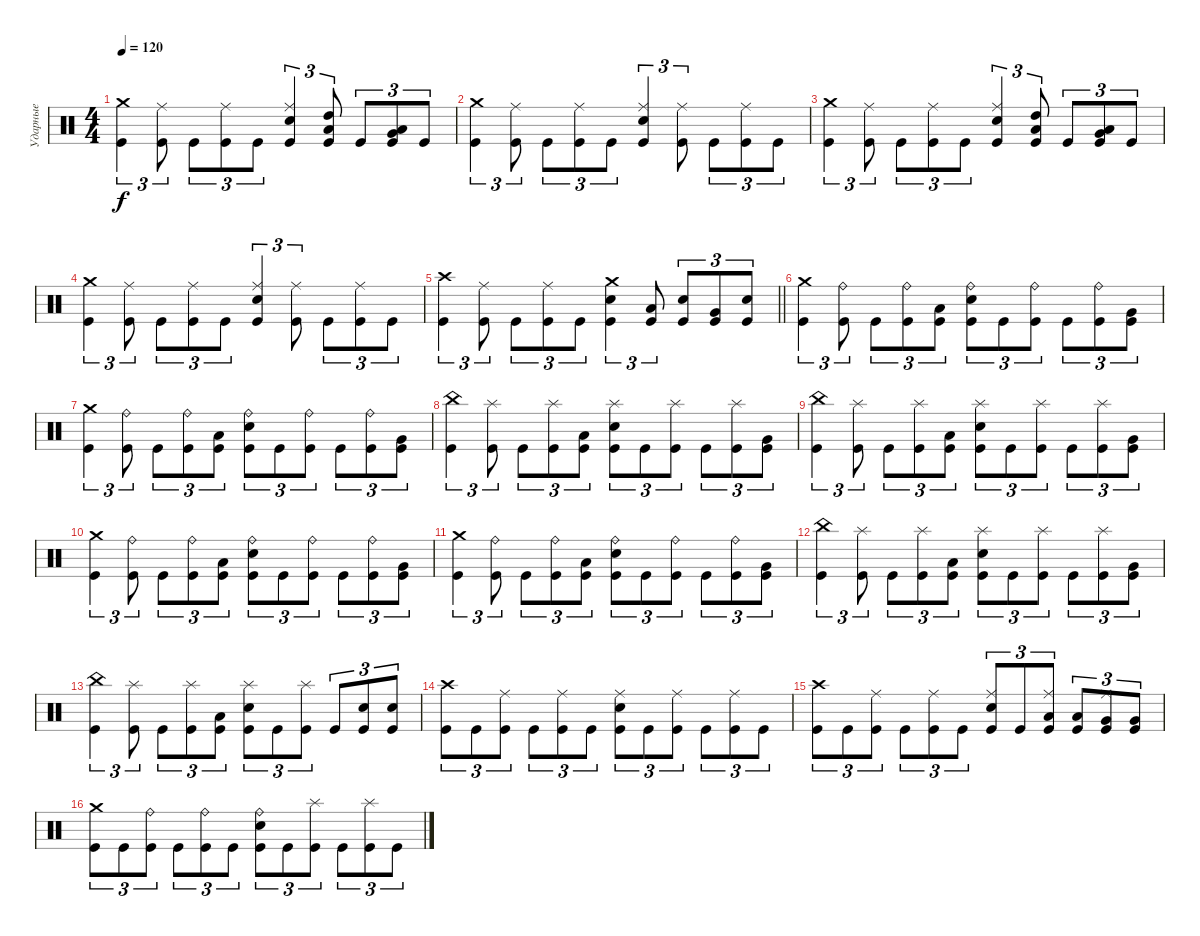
\track ("Ударные" "Ударные") {instrument percussion}
\staff {score}
\articulation defaults
\ts (4 4)
\tempo 120
\clef neutral
\ks c
("Crash medium (hit)" "Kick (hit)").4{tu (3 2) dy f} ("Ride (middle)" "Kick (hit)").8{tu (3 2)} "Kick (hit)".8{tu (3 2)} ("Ride (middle)" "Kick (hit)").8{tu (3 2)} "Kick (hit)".8{tu (3 2)} ("Ride (middle)" "Electric Snare (hit)" "Kick (hit)").4{tu (3 2)} ("Low Tom (hit)" "High Tom (hit)" "Kick (hit)").8{tu (3 2)} "Kick (hit)".8{tu (3 2)} ("Very Low Tom (hit)" "Low Tom (hit)" "Kick (hit)").8{tu (3 2)} "Kick (hit)".8{tu (3 2)} |
("Crash medium (hit)" "Kick (hit)").4{tu (3 2)} ("Ride (middle)" "Kick (hit)").8{tu (3 2)} "Kick (hit)".8{tu (3 2)} ("Ride (middle)" "Kick (hit)").8{tu (3 2)} "Kick (hit)".8{tu (3 2)} ("Ride (middle)" "Electric Snare (hit)" "Kick (hit)").4{tu (3 2)} ("Ride (middle)" "Kick (hit)").8{tu (3 2)} "Kick (hit)".8{tu (3 2)} ("Ride (middle)" "Kick (hit)").8{tu (3 2)} "Kick (hit)".8{tu (3 2)} |
("Crash medium (hit)" "Kick (hit)").4{tu (3 2)} ("Ride (middle)" "Kick (hit)").8{tu (3 2)} "Kick (hit)".8{tu (3 2)} ("Ride (middle)" "Kick (hit)").8{tu (3 2)} "Kick (hit)".8{tu (3 2)} ("Ride (middle)" "Electric Snare (hit)" "Kick (hit)").4{tu (3 2)} ("Low Tom (hit)" "High Tom (hit)" "Kick (hit)").8{tu (3 2)} "Kick (hit)".8{tu (3 2)} ("Very Low Tom (hit)" "Low Tom (hit)" "Kick (hit)").8{tu (3 2)} "Kick (hit)".8{tu (3 2)} |
("Crash medium (hit)" "Kick (hit)").4{tu (3 2)} ("Ride (middle)" "Kick (hit)").8{tu (3 2)} "Kick (hit)".8{tu (3 2)} ("Ride (middle)" "Kick (hit)").8{tu (3 2)} "Kick (hit)".8{tu (3 2)} ("Ride (middle)" "Electric Snare (hit)" "Kick (hit)").4{tu (3 2)} ("Ride (middle)" "Kick (hit)").8{tu (3 2)} "Kick (hit)".8{tu (3 2)} ("Ride (middle)" "Kick (hit)").8{tu (3 2)} "Kick (hit)".8{tu (3 2)} |
\barLineRight lightlight
("Crash high (hit)" "Kick (hit)").4{tu (3 2)} ("Ride (middle)" "Kick (hit)").8{tu (3 2)} "Kick (hit)".8{tu (3 2)} ("Ride (middle)" "Kick (hit)").8{tu (3 2)} "Kick (hit)".8{tu (3 2)} ("Crash medium (hit)" "Electric Snare (hit)" "Kick (hit)").4{tu (3 2)} ("Low Tom (hit)" "Kick (hit)").8{tu (3 2)} ("Electric Snare (hit)" "Kick (hit)").8{tu (3 2)} ("Very Low Tom (hit)" "Kick (hit)").8{tu (3 2)} ("Electric Snare (hit)" "Kick (hit)").8{tu (3 2)} |
\section ("" " ")
("Crash medium (hit)" "Kick (hit)").4{tu (3 2)} ("Ride (bell)" "Kick (hit)").8{tu (3 2)} "Kick (hit)".8{tu (3 2)} ("Ride (bell)" "Kick (hit)").8{tu (3 2)} ("Low Floor Tom (hit)" "Kick (hit)").8{tu (3 2)} ("Ride (bell)" "Electric Snare (hit)" "Kick (hit)").8{tu (3 2)} "Kick (hit)".8{tu (3 2)} ("Ride (bell)" "Kick (hit)").8{tu (3 2)} "Kick (hit)".8{tu (3 2)} ("Ride (bell)" "Kick (hit)").8{tu (3 2)} ("Very Low Tom (hit)" "Kick (hit)").8{tu (3 2)} |
("Crash medium (hit)" "Kick (hit)").4{tu (3 2)} ("Ride (bell)" "Kick (hit)").8{tu (3 2)} "Kick (hit)".8{tu (3 2)} ("Ride (bell)" "Kick (hit)").8{tu (3 2)} ("Low Floor Tom (hit)" "Kick (hit)").8{tu (3 2)} ("Ride (bell)" "Electric Snare (hit)" "Kick (hit)").8{tu (3 2)} "Kick (hit)".8{tu (3 2)} ("Ride (bell)" "Kick (hit)").8{tu (3 2)} "Kick (hit)".8{tu (3 2)} ("Ride (bell)" "Kick (hit)").8{tu (3 2)} ("Very Low Tom (hit)" "Kick (hit)").8{tu (3 2)} |
("China (hit)" "Kick (hit)").4{tu (3 2)} ("Splash (hit)" "Kick (hit)").8{tu (3 2)} "Kick (hit)".8{tu (3 2)} ("Splash (hit)" "Kick (hit)").8{tu (3 2)} ("Low Floor Tom (hit)" "Kick (hit)").8{tu (3 2)} ("Splash (hit)" "Electric Snare (hit)" "Kick (hit)").8{tu (3 2)} "Kick (hit)".8{tu (3 2)} ("Splash (hit)" "Kick (hit)").8{tu (3 2)} "Kick (hit)".8{tu (3 2)} ("Splash (hit)" "Kick (hit)").8{tu (3 2)} ("Very Low Tom (hit)" "Kick (hit)").8{tu (3 2)} |
("China (hit)" "Kick (hit)").4{tu (3 2)} ("Splash (hit)" "Kick (hit)").8{tu (3 2)} "Kick (hit)".8{tu (3 2)} ("Splash (hit)" "Kick (hit)").8{tu (3 2)} ("Low Floor Tom (hit)" "Kick (hit)").8{tu (3 2)} ("Splash (hit)" "Electric Snare (hit)" "Kick (hit)").8{tu (3 2)} "Kick (hit)".8{tu (3 2)} ("Splash (hit)" "Kick (hit)").8{tu (3 2)} "Kick (hit)".8{tu (3 2)} ("Splash (hit)" "Kick (hit)").8{tu (3 2)} ("Very Low Tom (hit)" "Kick (hit)").8{tu (3 2)} |
("Crash medium (hit)" "Kick (hit)").4{tu (3 2)} ("Ride (bell)" "Kick (hit)").8{tu (3 2)} "Kick (hit)".8{tu (3 2)} ("Ride (bell)" "Kick (hit)").8{tu (3 2)} ("Low Floor Tom (hit)" "Kick (hit)").8{tu (3 2)} ("Ride (bell)" "Electric Snare (hit)" "Kick (hit)").8{tu (3 2)} "Kick (hit)".8{tu (3 2)} ("Ride (bell)" "Kick (hit)").8{tu (3 2)} "Kick (hit)".8{tu (3 2)} ("Ride (bell)" "Kick (hit)").8{tu (3 2)} ("Very Low Tom (hit)" "Kick (hit)").8{tu (3 2)} |
("Crash medium (hit)" "Kick (hit)").4{tu (3 2)} ("Ride (bell)" "Kick (hit)").8{tu (3 2)} "Kick (hit)".8{tu (3 2)} ("Ride (bell)" "Kick (hit)").8{tu (3 2)} ("Low Floor Tom (hit)" "Kick (hit)").8{tu (3 2)} ("Ride (bell)" "Electric Snare (hit)" "Kick (hit)").8{tu (3 2)} "Kick (hit)".8{tu (3 2)} ("Ride (bell)" "Kick (hit)").8{tu (3 2)} "Kick (hit)".8{tu (3 2)} ("Ride (bell)" "Kick (hit)").8{tu (3 2)} ("Very Low Tom (hit)" "Kick (hit)").8{tu (3 2)} |
("China (hit)" "Kick (hit)").4{tu (3 2)} ("Splash (hit)" "Kick (hit)").8{tu (3 2)} "Kick (hit)".8{tu (3 2)} ("Splash (hit)" "Kick (hit)").8{tu (3 2)} ("Low Floor Tom (hit)" "Kick (hit)").8{tu (3 2)} ("Splash (hit)" "Electric Snare (hit)" "Kick (hit)").8{tu (3 2)} "Kick (hit)".8{tu (3 2)} ("Splash (hit)" "Kick (hit)").8{tu (3 2)} "Kick (hit)".8{tu (3 2)} ("Splash (hit)" "Kick (hit)").8{tu (3 2)} ("Very Low Tom (hit)" "Kick (hit)").8{tu (3 2)} |
("China (hit)" "Kick (hit)").4{tu (3 2)} ("Splash (hit)" "Kick (hit)").8{tu (3 2)} "Kick (hit)".8{tu (3 2)} ("Splash (hit)" "Kick (hit)").8{tu (3 2)} ("Low Floor Tom (hit)" "Kick (hit)").8{tu (3 2)} ("Splash (hit)" "Electric Snare (hit)" "Kick (hit)").8{tu (3 2)} "Kick (hit)".8{tu (3 2)} ("Splash (hit)" "Kick (hit)").8{tu (3 2)} "Kick (hit)".8{tu (3 2)} ("Electric Snare (hit)" "Kick (hit)").8{tu (3 2)} ("Electric Snare (hit)" "Kick (hit)").8{tu (3 2)} |
("Crash high (hit)" "Kick (hit)").8{tu (3 2)} "Kick (hit)".8{tu (3 2)} ("Ride (middle)" "Kick (hit)").8{tu (3 2)} "Kick (hit)".8{tu (3 2)} ("Ride (middle)" "Kick (hit)").8{tu (3 2)} "Kick (hit)".8{tu (3 2)} ("Ride (middle)" "Kick (hit)" "Electric Snare (hit)").8{tu (3 2)} "Kick (hit)".8{tu (3 2)} ("Ride (middle)" "Kick (hit)").8{tu (3 2)} "Kick (hit)".8{tu (3 2)} ("Ride (middle)" "Kick (hit)").8{tu (3 2)} "Kick (hit)".8{tu (3 2)} |
("Crash high (hit)" "Kick (hit)").8{tu (3 2)} "Kick (hit)".8{tu (3 2)} ("Ride (middle)" "Kick (hit)").8{tu (3 2)} "Kick (hit)".8{tu (3 2)} ("Ride (middle)" "Kick (hit)").8{tu (3 2)} "Kick (hit)".8{tu (3 2)} ("Ride (middle)" "Kick (hit)" "Electric Snare (hit)").8{tu (3 2)} "Kick (hit)".8{tu (3 2)} ("Low Tom (hit)" "Kick (hit)" "Ride (middle)").8{tu (3 2)} ("Low Tom (hit)" "Kick (hit)").8{tu (3 2)} ("Very Low Tom (hit)" "Kick (hit)" "Ride (middle)").8{tu (3 2)} ("Very Low Tom (hit)" "Kick (hit)").8{tu (3 2)} |
("Crash medium (hit)" "Kick (hit)").8{tu (3 2)} "Kick (hit)".8{tu (3 2)} ("Ride (bell)" "Kick (hit)").8{tu (3 2)} "Kick (hit)".8{tu (3 2)} ("Ride (bell)" "Kick (hit)").8{tu (3 2)} "Kick (hit)".8{tu (3 2)} ("Ride (bell)" "Kick (hit)" "Electric Snare (hit)").8{tu (3 2)} "Kick (hit)".8{tu (3 2)} ("Splash (hit)" "Kick (hit)").8{tu (3 2)} "Kick (hit)".8{tu (3 2)} ("Splash (hit)" "Kick (hit)").8{tu (3 2)} "Kick (hit)".8{tu (3 2)}
